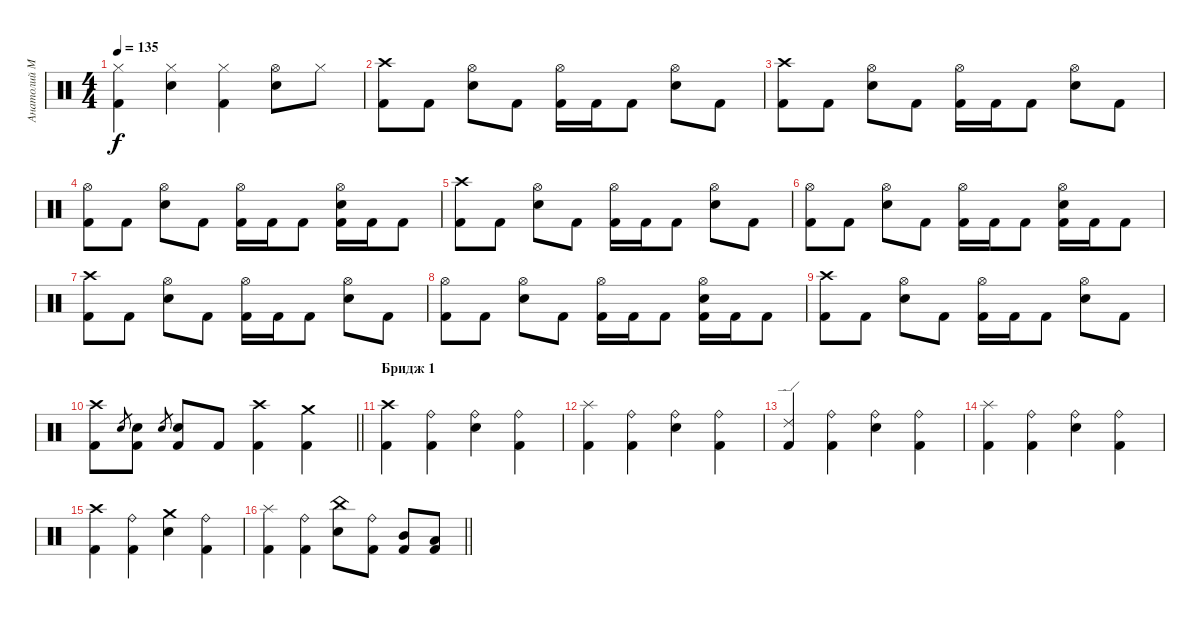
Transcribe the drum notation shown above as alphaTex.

\track ("Анатолий Малиновский" "Анатолий М") {instrument percussion}
\staff {score}
\articulation defaults
\ts (4 4)
\tempo 135
\clef neutral
\ks c
("Hi-Hat (closed)" "Kick (hit) 2").4{dy f} ("Hi-Hat (closed)" "Electric Snare (hit)").4 ("Hi-Hat (closed)" "Kick (hit) 2").4 ("Hi-Hat (open)" "Electric Snare (hit)").8 "Hi-Hat (closed)".8 |
("Crash high (hit)" "Kick (hit) 2").8 "Kick (hit) 2".8 ("Hi-Hat (open)" "Electric Snare (hit)").8 "Kick (hit) 2".8 ("Hi-Hat (open)" "Kick (hit) 2").16 "Kick (hit) 2".16 "Kick (hit) 2".8 ("Hi-Hat (open)" "Electric Snare (hit)").8 "Kick (hit) 2".8 |
("Crash high (hit)" "Kick (hit) 2").8 "Kick (hit) 2".8 ("Hi-Hat (open)" "Electric Snare (hit)").8 "Kick (hit) 2".8 ("Hi-Hat (open)" "Kick (hit) 2").16 "Kick (hit) 2".16 "Kick (hit) 2".8 ("Hi-Hat (open)" "Electric Snare (hit)").8 "Kick (hit) 2".8 |
("Hi-Hat (open)" "Kick (hit) 2").8 "Kick (hit) 2".8 ("Hi-Hat (open)" "Electric Snare (hit)").8 "Kick (hit) 2".8 ("Hi-Hat (open)" "Kick (hit) 2").16 "Kick (hit) 2".16 "Kick (hit) 2".8 ("Hi-Hat (open)" "Electric Snare (hit)" "Kick (hit) 2").16 "Kick (hit) 2".16 "Kick (hit) 2".8 |
("Crash high (hit)" "Kick (hit) 2").8 "Kick (hit) 2".8 ("Hi-Hat (open)" "Electric Snare (hit)").8 "Kick (hit) 2".8 ("Hi-Hat (open)" "Kick (hit) 2").16 "Kick (hit) 2".16 "Kick (hit) 2".8 ("Hi-Hat (open)" "Electric Snare (hit)").8 "Kick (hit) 2".8 |
("Hi-Hat (open)" "Kick (hit) 2").8 "Kick (hit) 2".8 ("Hi-Hat (open)" "Electric Snare (hit)").8 "Kick (hit) 2".8 ("Hi-Hat (open)" "Kick (hit) 2").16 "Kick (hit) 2".16 "Kick (hit) 2".8 ("Hi-Hat (open)" "Electric Snare (hit)" "Kick (hit) 2").16 "Kick (hit) 2".16 "Kick (hit) 2".8 |
("Crash high (hit)" "Kick (hit) 2").8 "Kick (hit) 2".8 ("Hi-Hat (open)" "Electric Snare (hit)").8 "Kick (hit) 2".8 ("Hi-Hat (open)" "Kick (hit) 2").16 "Kick (hit) 2".16 "Kick (hit) 2".8 ("Hi-Hat (open)" "Electric Snare (hit)").8 "Kick (hit) 2".8 |
("Hi-Hat (open)" "Kick (hit) 2").8 "Kick (hit) 2".8 ("Hi-Hat (open)" "Electric Snare (hit)").8 "Kick (hit) 2".8 ("Hi-Hat (open)" "Kick (hit) 2").16 "Kick (hit) 2".16 "Kick (hit) 2".8 ("Hi-Hat (open)" "Electric Snare (hit)" "Kick (hit) 2").16 "Kick (hit) 2".16 "Kick (hit) 2".8 |
("Crash high (hit)" "Kick (hit) 2").8 "Kick (hit) 2".8 ("Hi-Hat (open)" "Electric Snare (hit)").8 "Kick (hit) 2".8 ("Hi-Hat (open)" "Kick (hit) 2").16 "Kick (hit) 2".16 "Kick (hit) 2".8 ("Hi-Hat (open)" "Electric Snare (hit)").8 "Kick (hit) 2".8 |
\barLineRight lightlight
("Crash high (hit)" "Kick (hit) 2").8 "Electric Snare (hit)".8{gr} ("Electric Snare (hit)" "Kick (hit) 2").8 "Electric Snare (hit)".8{gr} ("Electric Snare (hit)" "Kick (hit) 2").8 "Kick (hit) 2".8 ("Crash high (hit)" "Kick (hit) 2").4 ("Crash medium (hit)" "Kick (hit) 2").4 |
\section ("" "Бридж 1")
("Crash high (hit)" "Kick (hit) 2").4 ("Ride (bell)" "Kick (hit) 2").4 ("Ride (bell)" "Electric Snare (hit)").4 ("Ride (bell)" "Kick (hit) 2").4 |
("Splash (hit)" "Kick (hit) 2").4 ("Ride (bell)" "Kick (hit) 2").4 ("Ride (bell)" "Electric Snare (hit)").4 ("Ride (bell)" "Kick (hit) 2").4 |
("Ride (edge) 2" "Kick (hit) 2").4 ("Ride (bell)" "Kick (hit) 2").4 ("Ride (bell)" "Electric Snare (hit)").4 ("Ride (bell)" "Kick (hit) 2").4 |
("Splash (hit)" "Kick (hit) 2").4 ("Ride (bell)" "Kick (hit) 2").4 ("Ride (bell)" "Electric Snare (hit)").4 ("Ride (bell)" "Kick (hit) 2").4 |
("Crash high (hit)" "Kick (hit) 2").4 ("Ride (bell)" "Kick (hit) 2").4 ("Crash medium (hit)" "Electric Snare (hit)").4 ("Ride (bell)" "Kick (hit) 2").4 |
\barLineRight lightlight
("Splash (hit)" "Kick (hit) 2").4 ("Ride (bell)" "Kick (hit) 2").4 ("China (hit)" "Electric Snare (hit)").8 ("Ride (bell)" "Kick (hit) 2").8 ("Mid Tom (hit)" "Kick (hit) 2").8 ("Low Tom (hit)" "Kick (hit) 2").8
